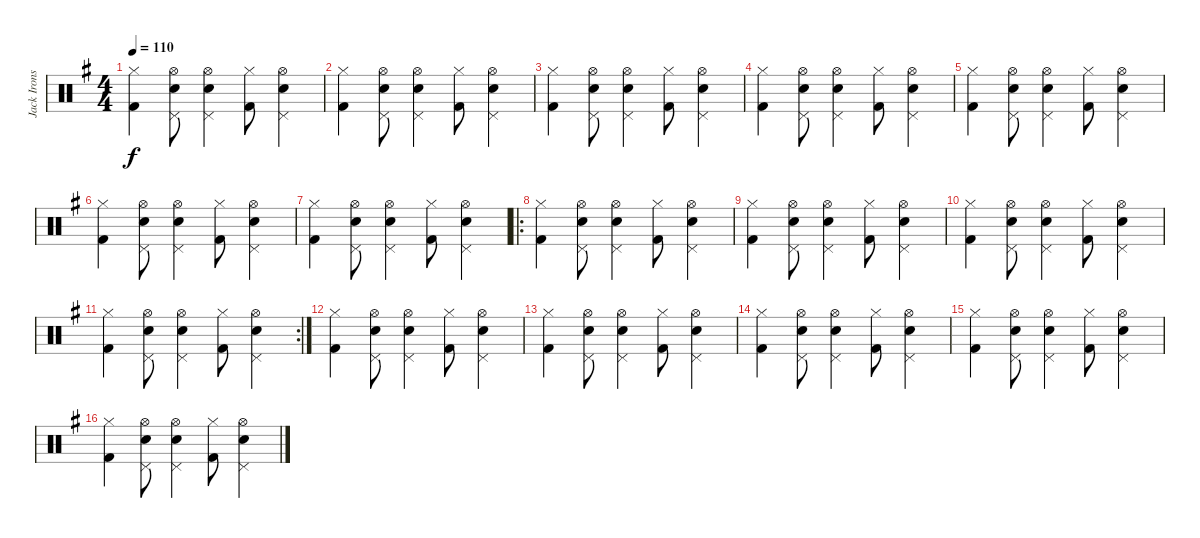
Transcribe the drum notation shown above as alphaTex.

\track ("Jack Irons" "Jack Irons") {instrument percussion}
\staff {score}
\articulation defaults
\ts (4 4)
\tempo 110
\clef neutral
\ks g
("Hi-Hat (closed)" "Kick (hit) 2").4{dy f} ("Hi-Hat (open)" "Snare (hit) 2" "Pedal Hi-Hat (hit)").8 ("Hi-Hat (open)" "Snare (hit) 2" "Pedal Hi-Hat (hit)").4 ("Hi-Hat (closed)" "Kick (hit) 2").8 ("Hi-Hat (open)" "Snare (hit) 2" "Pedal Hi-Hat (hit)").4 |
("Hi-Hat (closed)" "Kick (hit) 2").4 ("Hi-Hat (open)" "Snare (hit) 2" "Pedal Hi-Hat (hit)").8 ("Hi-Hat (open)" "Snare (hit) 2" "Pedal Hi-Hat (hit)").4 ("Hi-Hat (closed)" "Kick (hit) 2").8 ("Hi-Hat (open)" "Snare (hit) 2" "Pedal Hi-Hat (hit)").4 |
("Hi-Hat (closed)" "Kick (hit) 2").4 ("Hi-Hat (open)" "Snare (hit) 2" "Pedal Hi-Hat (hit)").8 ("Hi-Hat (open)" "Snare (hit) 2" "Pedal Hi-Hat (hit)").4 ("Hi-Hat (closed)" "Kick (hit) 2").8 ("Hi-Hat (open)" "Snare (hit) 2" "Pedal Hi-Hat (hit)").4 |
("Hi-Hat (closed)" "Kick (hit) 2").4 ("Hi-Hat (open)" "Snare (hit) 2" "Pedal Hi-Hat (hit)").8 ("Hi-Hat (open)" "Snare (hit) 2" "Pedal Hi-Hat (hit)").4 ("Hi-Hat (closed)" "Kick (hit) 2").8 ("Hi-Hat (open)" "Snare (hit) 2" "Pedal Hi-Hat (hit)").4 |
("Hi-Hat (closed)" "Kick (hit) 2").4 ("Hi-Hat (open)" "Snare (hit) 2" "Pedal Hi-Hat (hit)").8 ("Hi-Hat (open)" "Snare (hit) 2" "Pedal Hi-Hat (hit)").4 ("Hi-Hat (closed)" "Kick (hit) 2").8 ("Hi-Hat (open)" "Snare (hit) 2" "Pedal Hi-Hat (hit)").4 |
("Hi-Hat (closed)" "Kick (hit) 2").4 ("Hi-Hat (open)" "Snare (hit) 2" "Pedal Hi-Hat (hit)").8 ("Hi-Hat (open)" "Snare (hit) 2" "Pedal Hi-Hat (hit)").4 ("Hi-Hat (closed)" "Kick (hit) 2").8 ("Hi-Hat (open)" "Snare (hit) 2" "Pedal Hi-Hat (hit)").4 |
("Hi-Hat (closed)" "Kick (hit) 2").4 ("Hi-Hat (open)" "Snare (hit) 2" "Pedal Hi-Hat (hit)").8 ("Hi-Hat (open)" "Snare (hit) 2" "Pedal Hi-Hat (hit)").4 ("Hi-Hat (closed)" "Kick (hit) 2").8 ("Hi-Hat (open)" "Snare (hit) 2" "Pedal Hi-Hat (hit)").4 |
\ro
("Hi-Hat (closed)" "Kick (hit) 2").4 ("Hi-Hat (open)" "Snare (hit) 2" "Pedal Hi-Hat (hit)").8 ("Hi-Hat (open)" "Snare (hit) 2" "Pedal Hi-Hat (hit)").4 ("Hi-Hat (closed)" "Kick (hit) 2").8 ("Hi-Hat (open)" "Snare (hit) 2" "Pedal Hi-Hat (hit)").4 |
("Hi-Hat (closed)" "Kick (hit) 2").4 ("Hi-Hat (open)" "Snare (hit) 2" "Pedal Hi-Hat (hit)").8 ("Hi-Hat (open)" "Snare (hit) 2" "Pedal Hi-Hat (hit)").4 ("Hi-Hat (closed)" "Kick (hit) 2").8 ("Hi-Hat (open)" "Snare (hit) 2" "Pedal Hi-Hat (hit)").4 |
("Hi-Hat (closed)" "Kick (hit) 2").4 ("Hi-Hat (open)" "Snare (hit) 2" "Pedal Hi-Hat (hit)").8 ("Hi-Hat (open)" "Snare (hit) 2" "Pedal Hi-Hat (hit)").4 ("Hi-Hat (closed)" "Kick (hit) 2").8 ("Hi-Hat (open)" "Snare (hit) 2" "Pedal Hi-Hat (hit)").4 |
\rc 2
("Hi-Hat (closed)" "Kick (hit) 2").4 ("Hi-Hat (open)" "Snare (hit) 2" "Pedal Hi-Hat (hit)").8 ("Hi-Hat (open)" "Snare (hit) 2" "Pedal Hi-Hat (hit)").4 ("Hi-Hat (closed)" "Kick (hit) 2").8 ("Hi-Hat (open)" "Snare (hit) 2" "Pedal Hi-Hat (hit)").4 |
("Hi-Hat (closed)" "Kick (hit) 2").4 ("Hi-Hat (open)" "Snare (hit) 2" "Pedal Hi-Hat (hit)").8 ("Hi-Hat (open)" "Snare (hit) 2" "Pedal Hi-Hat (hit)").4 ("Hi-Hat (closed)" "Kick (hit) 2").8 ("Hi-Hat (open)" "Snare (hit) 2" "Pedal Hi-Hat (hit)").4 |
("Hi-Hat (closed)" "Kick (hit) 2").4 ("Hi-Hat (open)" "Snare (hit) 2" "Pedal Hi-Hat (hit)").8 ("Hi-Hat (open)" "Snare (hit) 2" "Pedal Hi-Hat (hit)").4 ("Hi-Hat (closed)" "Kick (hit) 2").8 ("Hi-Hat (open)" "Snare (hit) 2" "Pedal Hi-Hat (hit)").4 |
("Hi-Hat (closed)" "Kick (hit) 2").4 ("Hi-Hat (open)" "Snare (hit) 2" "Pedal Hi-Hat (hit)").8 ("Hi-Hat (open)" "Snare (hit) 2" "Pedal Hi-Hat (hit)").4 ("Hi-Hat (closed)" "Kick (hit) 2").8 ("Hi-Hat (open)" "Snare (hit) 2" "Pedal Hi-Hat (hit)").4 |
("Hi-Hat (closed)" "Kick (hit) 2").4 ("Hi-Hat (open)" "Snare (hit) 2" "Pedal Hi-Hat (hit)").8 ("Hi-Hat (open)" "Snare (hit) 2" "Pedal Hi-Hat (hit)").4 ("Hi-Hat (closed)" "Kick (hit) 2").8 ("Hi-Hat (open)" "Snare (hit) 2" "Pedal Hi-Hat (hit)").4 |
("Hi-Hat (closed)" "Kick (hit) 2").4 ("Hi-Hat (open)" "Snare (hit) 2" "Pedal Hi-Hat (hit)").8 ("Hi-Hat (open)" "Snare (hit) 2" "Pedal Hi-Hat (hit)").4 ("Hi-Hat (closed)" "Kick (hit) 2").8 ("Hi-Hat (open)" "Snare (hit) 2" "Pedal Hi-Hat (hit)").4
